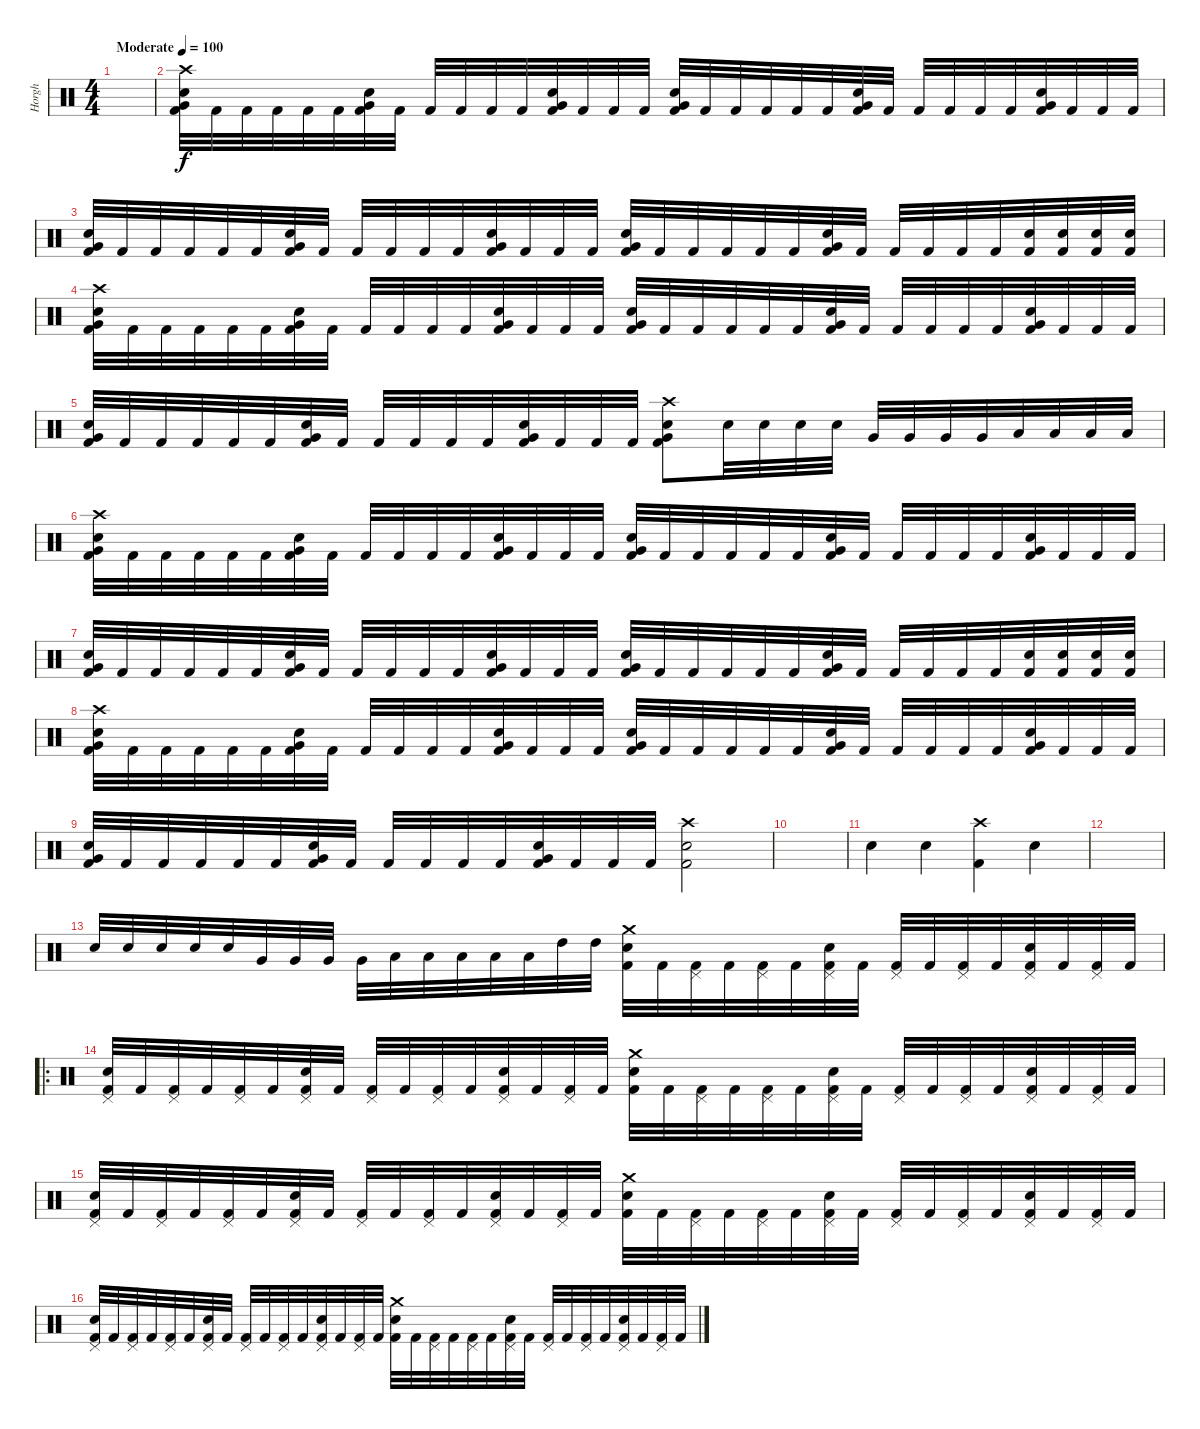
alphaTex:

\track ("Horgh" "Horgh") {instrument percussion}
\staff {score}
\articulation defaults
\ts (4 4)
\tempo (100 "Moderate")
\clef neutral
\ks c
|
("Crash high (hit)" "Electric Snare (hit)" "Very Low Tom (hit)" "Kick (hit) 2").32 "Kick (hit) 2".32 "Kick (hit) 2".32 "Kick (hit) 2".32 "Kick (hit) 2".32 "Kick (hit) 2".32 ("Electric Snare (hit)" "Very Low Tom (hit)" "Kick (hit) 2").32 "Kick (hit) 2".32 "Kick (hit) 2".32 "Kick (hit) 2".32 "Kick (hit) 2".32 "Kick (hit) 2".32 ("Electric Snare (hit)" "Very Low Tom (hit)" "Kick (hit) 2").32 "Kick (hit) 2".32 "Kick (hit) 2".32 "Kick (hit) 2".32 ("Electric Snare (hit)" "Very Low Tom (hit)" "Kick (hit) 2").32 "Kick (hit) 2".32 "Kick (hit) 2".32 "Kick (hit) 2".32 "Kick (hit) 2".32 "Kick (hit) 2".32 ("Electric Snare (hit)" "Very Low Tom (hit)" "Kick (hit) 2").32 "Kick (hit) 2".32 "Kick (hit) 2".32 "Kick (hit) 2".32 "Kick (hit) 2".32 "Kick (hit) 2".32 ("Electric Snare (hit)" "Very Low Tom (hit)" "Kick (hit) 2").32 "Kick (hit) 2".32 "Kick (hit) 2".32 "Kick (hit) 2".32 |
("Electric Snare (hit)" "Very Low Tom (hit)" "Kick (hit) 2").32 "Kick (hit) 2".32 "Kick (hit) 2".32 "Kick (hit) 2".32 "Kick (hit) 2".32 "Kick (hit) 2".32 ("Electric Snare (hit)" "Very Low Tom (hit)" "Kick (hit) 2").32 "Kick (hit) 2".32 "Kick (hit) 2".32 "Kick (hit) 2".32 "Kick (hit) 2".32 "Kick (hit) 2".32 ("Electric Snare (hit)" "Very Low Tom (hit)" "Kick (hit) 2").32 "Kick (hit) 2".32 "Kick (hit) 2".32 "Kick (hit) 2".32 ("Electric Snare (hit)" "Very Low Tom (hit)" "Kick (hit) 2").32 "Kick (hit) 2".32 "Kick (hit) 2".32 "Kick (hit) 2".32 "Kick (hit) 2".32 "Kick (hit) 2".32 ("Electric Snare (hit)" "Very Low Tom (hit)" "Kick (hit) 2").32 "Kick (hit) 2".32 "Kick (hit) 2".32 "Kick (hit) 2".32 "Kick (hit) 2".32 "Kick (hit) 2".32 ("Electric Snare (hit)" "Kick (hit) 2").32 ("Electric Snare (hit)" "Kick (hit) 2").32 ("Electric Snare (hit)" "Kick (hit) 2").32 ("Electric Snare (hit)" "Kick (hit) 2").32 |
("Crash high (hit)" "Electric Snare (hit)" "Very Low Tom (hit)" "Kick (hit) 2").32 "Kick (hit) 2".32 "Kick (hit) 2".32 "Kick (hit) 2".32 "Kick (hit) 2".32 "Kick (hit) 2".32 ("Electric Snare (hit)" "Very Low Tom (hit)" "Kick (hit) 2").32 "Kick (hit) 2".32 "Kick (hit) 2".32 "Kick (hit) 2".32 "Kick (hit) 2".32 "Kick (hit) 2".32 ("Electric Snare (hit)" "Very Low Tom (hit)" "Kick (hit) 2").32 "Kick (hit) 2".32 "Kick (hit) 2".32 "Kick (hit) 2".32 ("Electric Snare (hit)" "Very Low Tom (hit)" "Kick (hit) 2").32 "Kick (hit) 2".32 "Kick (hit) 2".32 "Kick (hit) 2".32 "Kick (hit) 2".32 "Kick (hit) 2".32 ("Electric Snare (hit)" "Very Low Tom (hit)" "Kick (hit) 2").32 "Kick (hit) 2".32 "Kick (hit) 2".32 "Kick (hit) 2".32 "Kick (hit) 2".32 "Kick (hit) 2".32 ("Electric Snare (hit)" "Very Low Tom (hit)" "Kick (hit) 2").32 "Kick (hit) 2".32 "Kick (hit) 2".32 "Kick (hit) 2".32 |
("Electric Snare (hit)" "Very Low Tom (hit)" "Kick (hit) 2").32 "Kick (hit) 2".32 "Kick (hit) 2".32 "Kick (hit) 2".32 "Kick (hit) 2".32 "Kick (hit) 2".32 ("Electric Snare (hit)" "Very Low Tom (hit)" "Kick (hit) 2").32 "Kick (hit) 2".32 "Kick (hit) 2".32 "Kick (hit) 2".32 "Kick (hit) 2".32 "Kick (hit) 2".32 ("Electric Snare (hit)" "Very Low Tom (hit)" "Kick (hit) 2").32 "Kick (hit) 2".32 "Kick (hit) 2".32 "Kick (hit) 2".32 ("Crash high (hit)" "Electric Snare (hit)" "Very Low Tom (hit)" "Kick (hit) 2").8 "Electric Snare (hit)".32 "Electric Snare (hit)".32 "Electric Snare (hit)".32 "Electric Snare (hit)".32 "Very Low Tom (hit)".32 "Very Low Tom (hit)".32 "Very Low Tom (hit)".32 "Very Low Tom (hit)".32 "Low Tom (hit)".32 "Low Tom (hit)".32 "Low Tom (hit)".32 "Low Tom (hit)".32 |
("Crash high (hit)" "Electric Snare (hit)" "Very Low Tom (hit)" "Kick (hit) 2").32 "Kick (hit) 2".32 "Kick (hit) 2".32 "Kick (hit) 2".32 "Kick (hit) 2".32 "Kick (hit) 2".32 ("Electric Snare (hit)" "Very Low Tom (hit)" "Kick (hit) 2").32 "Kick (hit) 2".32 "Kick (hit) 2".32 "Kick (hit) 2".32 "Kick (hit) 2".32 "Kick (hit) 2".32 ("Electric Snare (hit)" "Very Low Tom (hit)" "Kick (hit) 2").32 "Kick (hit) 2".32 "Kick (hit) 2".32 "Kick (hit) 2".32 ("Electric Snare (hit)" "Very Low Tom (hit)" "Kick (hit) 2").32 "Kick (hit) 2".32 "Kick (hit) 2".32 "Kick (hit) 2".32 "Kick (hit) 2".32 "Kick (hit) 2".32 ("Electric Snare (hit)" "Very Low Tom (hit)" "Kick (hit) 2").32 "Kick (hit) 2".32 "Kick (hit) 2".32 "Kick (hit) 2".32 "Kick (hit) 2".32 "Kick (hit) 2".32 ("Electric Snare (hit)" "Very Low Tom (hit)" "Kick (hit) 2").32 "Kick (hit) 2".32 "Kick (hit) 2".32 "Kick (hit) 2".32 |
("Electric Snare (hit)" "Very Low Tom (hit)" "Kick (hit) 2").32 "Kick (hit) 2".32 "Kick (hit) 2".32 "Kick (hit) 2".32 "Kick (hit) 2".32 "Kick (hit) 2".32 ("Electric Snare (hit)" "Very Low Tom (hit)" "Kick (hit) 2").32 "Kick (hit) 2".32 "Kick (hit) 2".32 "Kick (hit) 2".32 "Kick (hit) 2".32 "Kick (hit) 2".32 ("Electric Snare (hit)" "Very Low Tom (hit)" "Kick (hit) 2").32 "Kick (hit) 2".32 "Kick (hit) 2".32 "Kick (hit) 2".32 ("Electric Snare (hit)" "Very Low Tom (hit)" "Kick (hit) 2").32 "Kick (hit) 2".32 "Kick (hit) 2".32 "Kick (hit) 2".32 "Kick (hit) 2".32 "Kick (hit) 2".32 ("Electric Snare (hit)" "Very Low Tom (hit)" "Kick (hit) 2").32 "Kick (hit) 2".32 "Kick (hit) 2".32 "Kick (hit) 2".32 "Kick (hit) 2".32 "Kick (hit) 2".32 ("Electric Snare (hit)" "Kick (hit) 2").32 ("Electric Snare (hit)" "Kick (hit) 2").32 ("Electric Snare (hit)" "Kick (hit) 2").32 ("Electric Snare (hit)" "Kick (hit) 2").32 |
("Crash high (hit)" "Electric Snare (hit)" "Very Low Tom (hit)" "Kick (hit) 2").32 "Kick (hit) 2".32 "Kick (hit) 2".32 "Kick (hit) 2".32 "Kick (hit) 2".32 "Kick (hit) 2".32 ("Electric Snare (hit)" "Very Low Tom (hit)" "Kick (hit) 2").32 "Kick (hit) 2".32 "Kick (hit) 2".32 "Kick (hit) 2".32 "Kick (hit) 2".32 "Kick (hit) 2".32 ("Electric Snare (hit)" "Very Low Tom (hit)" "Kick (hit) 2").32 "Kick (hit) 2".32 "Kick (hit) 2".32 "Kick (hit) 2".32 ("Electric Snare (hit)" "Very Low Tom (hit)" "Kick (hit) 2").32 "Kick (hit) 2".32 "Kick (hit) 2".32 "Kick (hit) 2".32 "Kick (hit) 2".32 "Kick (hit) 2".32 ("Electric Snare (hit)" "Very Low Tom (hit)" "Kick (hit) 2").32 "Kick (hit) 2".32 "Kick (hit) 2".32 "Kick (hit) 2".32 "Kick (hit) 2".32 "Kick (hit) 2".32 ("Electric Snare (hit)" "Very Low Tom (hit)" "Kick (hit) 2").32 "Kick (hit) 2".32 "Kick (hit) 2".32 "Kick (hit) 2".32 |
("Electric Snare (hit)" "Very Low Tom (hit)" "Kick (hit) 2").32 "Kick (hit) 2".32 "Kick (hit) 2".32 "Kick (hit) 2".32 "Kick (hit) 2".32 "Kick (hit) 2".32 ("Electric Snare (hit)" "Very Low Tom (hit)" "Kick (hit) 2").32 "Kick (hit) 2".32 "Kick (hit) 2".32 "Kick (hit) 2".32 "Kick (hit) 2".32 "Kick (hit) 2".32 ("Electric Snare (hit)" "Very Low Tom (hit)" "Kick (hit) 2").32 "Kick (hit) 2".32 "Kick (hit) 2".32 "Kick (hit) 2".32 ("Crash high (hit)" "Electric Snare (hit)" "Kick (hit) 2").2 |
|
"Snare (hit)".4 "Snare (hit)".4 ("Crash high (hit)" "Kick (hit) 2").4 "Snare (hit)".4 |
|
"Electric Snare (hit)".32 "Electric Snare (hit)".32 "Electric Snare (hit)".32 "Electric Snare (hit)".32 "Electric Snare (hit)".32 "Very Low Tom (hit)".32 "Very Low Tom (hit)".32 "Very Low Tom (hit)".32 "Very Low Tom (hit)".32 "Low Tom (hit)".32 "Low Tom (hit)".32 "Low Tom (hit)".32 "Low Tom (hit)".32 "Low Tom (hit)".32 "High Tom (hit)".32 "High Tom (hit)".32 ("Crash medium (hit)" "Electric Snare (hit)" "Kick (hit) 2").32 "Kick (hit) 2".32 ("Pedal Hi-Hat (hit)" "Kick (hit) 2").32 "Kick (hit) 2".32 ("Pedal Hi-Hat (hit)" "Kick (hit) 2").32 "Kick (hit) 2".32 ("Pedal Hi-Hat (hit)" "Electric Snare (hit)" "Kick (hit) 2").32 "Kick (hit) 2".32 ("Pedal Hi-Hat (hit)" "Kick (hit) 2").32 "Kick (hit) 2".32 ("Pedal Hi-Hat (hit)" "Kick (hit) 2").32 "Kick (hit) 2".32 ("Pedal Hi-Hat (hit)" "Electric Snare (hit)" "Kick (hit) 2").32 "Kick (hit) 2".32 ("Pedal Hi-Hat (hit)" "Kick (hit) 2").32 "Kick (hit) 2".32 |
\ro
("Pedal Hi-Hat (hit)" "Electric Snare (hit)" "Kick (hit) 2").32 "Kick (hit) 2".32 ("Pedal Hi-Hat (hit)" "Kick (hit) 2").32 "Kick (hit) 2".32 ("Pedal Hi-Hat (hit)" "Kick (hit) 2").32 "Kick (hit) 2".32 ("Pedal Hi-Hat (hit)" "Electric Snare (hit)" "Kick (hit) 2").32 "Kick (hit) 2".32 ("Pedal Hi-Hat (hit)" "Kick (hit) 2").32 "Kick (hit) 2".32 ("Pedal Hi-Hat (hit)" "Kick (hit) 2").32 "Kick (hit) 2".32 ("Pedal Hi-Hat (hit)" "Electric Snare (hit)" "Kick (hit) 2").32 "Kick (hit) 2".32 ("Pedal Hi-Hat (hit)" "Kick (hit) 2").32 "Kick (hit) 2".32 ("Crash medium (hit)" "Electric Snare (hit)" "Kick (hit) 2").32 "Kick (hit) 2".32 ("Pedal Hi-Hat (hit)" "Kick (hit) 2").32 "Kick (hit) 2".32 ("Pedal Hi-Hat (hit)" "Kick (hit) 2").32 "Kick (hit) 2".32 ("Pedal Hi-Hat (hit)" "Electric Snare (hit)" "Kick (hit) 2").32 "Kick (hit) 2".32 ("Pedal Hi-Hat (hit)" "Kick (hit) 2").32 "Kick (hit) 2".32 ("Pedal Hi-Hat (hit)" "Kick (hit) 2").32 "Kick (hit) 2".32 ("Pedal Hi-Hat (hit)" "Electric Snare (hit)" "Kick (hit) 2").32 "Kick (hit) 2".32 ("Pedal Hi-Hat (hit)" "Kick (hit) 2").32 "Kick (hit) 2".32 |
("Pedal Hi-Hat (hit)" "Electric Snare (hit)" "Kick (hit) 2").32 "Kick (hit) 2".32 ("Pedal Hi-Hat (hit)" "Kick (hit) 2").32 "Kick (hit) 2".32 ("Pedal Hi-Hat (hit)" "Kick (hit) 2").32 "Kick (hit) 2".32 ("Pedal Hi-Hat (hit)" "Electric Snare (hit)" "Kick (hit) 2").32 "Kick (hit) 2".32 ("Pedal Hi-Hat (hit)" "Kick (hit) 2").32 "Kick (hit) 2".32 ("Pedal Hi-Hat (hit)" "Kick (hit) 2").32 "Kick (hit) 2".32 ("Pedal Hi-Hat (hit)" "Electric Snare (hit)" "Kick (hit) 2").32 "Kick (hit) 2".32 ("Pedal Hi-Hat (hit)" "Kick (hit) 2").32 "Kick (hit) 2".32 ("Crash medium (hit)" "Electric Snare (hit)" "Kick (hit) 2").32 "Kick (hit) 2".32 ("Pedal Hi-Hat (hit)" "Kick (hit) 2").32 "Kick (hit) 2".32 ("Pedal Hi-Hat (hit)" "Kick (hit) 2").32 "Kick (hit) 2".32 ("Pedal Hi-Hat (hit)" "Electric Snare (hit)" "Kick (hit) 2").32 "Kick (hit) 2".32 ("Pedal Hi-Hat (hit)" "Kick (hit) 2").32 "Kick (hit) 2".32 ("Pedal Hi-Hat (hit)" "Kick (hit) 2").32 "Kick (hit) 2".32 ("Pedal Hi-Hat (hit)" "Electric Snare (hit)" "Kick (hit) 2").32 "Kick (hit) 2".32 ("Pedal Hi-Hat (hit)" "Kick (hit) 2").32 "Kick (hit) 2".32 |
("Pedal Hi-Hat (hit)" "Electric Snare (hit)" "Kick (hit) 2").32 "Kick (hit) 2".32 ("Pedal Hi-Hat (hit)" "Kick (hit) 2").32 "Kick (hit) 2".32 ("Pedal Hi-Hat (hit)" "Kick (hit) 2").32 "Kick (hit) 2".32 ("Pedal Hi-Hat (hit)" "Electric Snare (hit)" "Kick (hit) 2").32 "Kick (hit) 2".32 ("Pedal Hi-Hat (hit)" "Kick (hit) 2").32 "Kick (hit) 2".32 ("Pedal Hi-Hat (hit)" "Kick (hit) 2").32 "Kick (hit) 2".32 ("Pedal Hi-Hat (hit)" "Electric Snare (hit)" "Kick (hit) 2").32 "Kick (hit) 2".32 ("Pedal Hi-Hat (hit)" "Kick (hit) 2").32 "Kick (hit) 2".32 ("Crash medium (hit)" "Electric Snare (hit)" "Kick (hit) 2").32 "Kick (hit) 2".32 ("Pedal Hi-Hat (hit)" "Kick (hit) 2").32 "Kick (hit) 2".32 ("Pedal Hi-Hat (hit)" "Kick (hit) 2").32 "Kick (hit) 2".32 ("Pedal Hi-Hat (hit)" "Electric Snare (hit)" "Kick (hit) 2").32 "Kick (hit) 2".32 ("Pedal Hi-Hat (hit)" "Kick (hit) 2").32 "Kick (hit) 2".32 ("Pedal Hi-Hat (hit)" "Kick (hit) 2").32 "Kick (hit) 2".32 ("Pedal Hi-Hat (hit)" "Electric Snare (hit)" "Kick (hit) 2").32 "Kick (hit) 2".32 ("Pedal Hi-Hat (hit)" "Kick (hit) 2").32 "Kick (hit) 2".32
